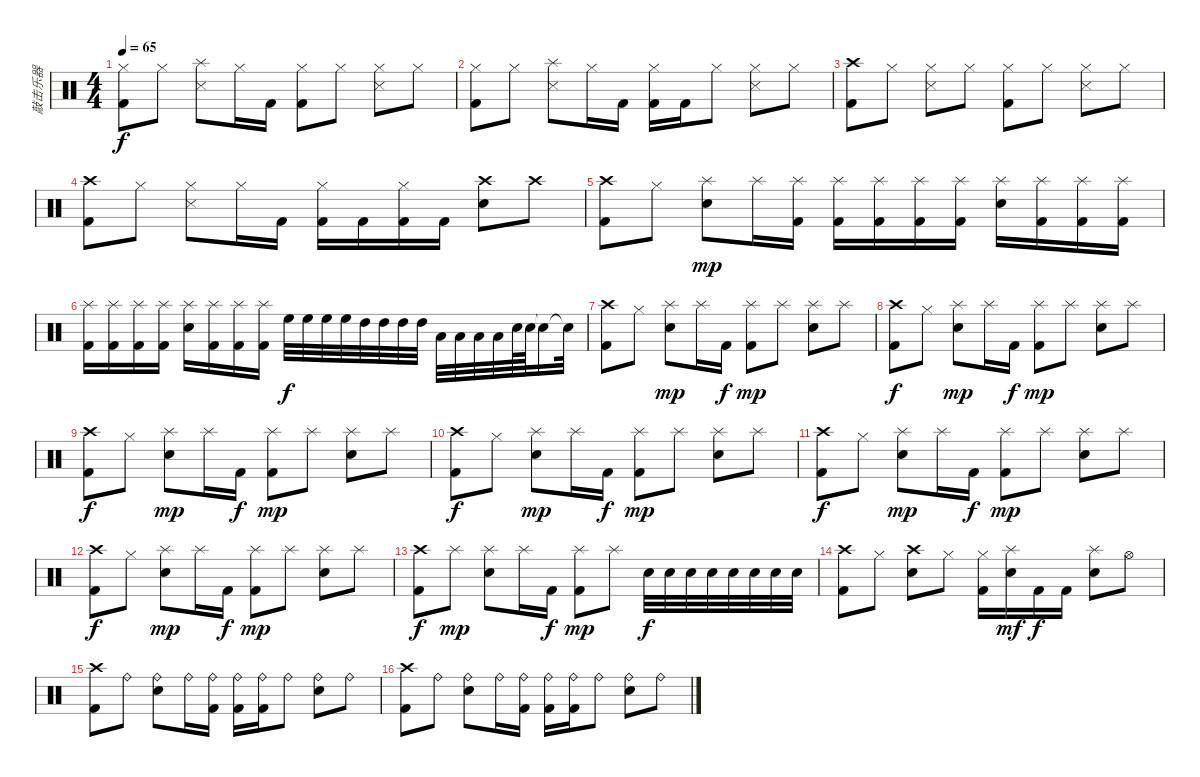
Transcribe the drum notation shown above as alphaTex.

\track ("敲击乐器" "敲击乐器") {instrument percussion}
\staff {score}
\articulation defaults
\ts (4 4)
\tempo 65
\clef neutral
\ks c
("Hi-Hat (closed)" "Kick (hit) 2").8{dy f} "Hi-Hat (closed)".8 ("Splash (hit)" "Snare (side stick) 3").8 "Hi-Hat (closed)".16 "Kick (hit) 2".16 ("Hi-Hat (closed)" "Kick (hit) 2").8 "Hi-Hat (closed)".8 ("Hi-Hat (closed)" "Snare (side stick) 3").8 "Hi-Hat (closed)".8 |
("Hi-Hat (closed)" "Kick (hit) 2").8 "Hi-Hat (closed)".8 ("Splash (hit)" "Snare (side stick) 3").8 "Hi-Hat (closed)".16 "Kick (hit) 2".16 ("Hi-Hat (closed)" "Kick (hit) 2").16 "Kick (hit) 2".16 "Hi-Hat (closed)".8 ("Hi-Hat (closed)" "Snare (side stick) 3").8 "Hi-Hat (closed)".8 |
("Crash high (hit)" "Kick (hit) 2").8 "Hi-Hat (closed)".8 ("Hi-Hat (closed)" "Snare (side stick) 3").8 "Hi-Hat (closed)".8 ("Hi-Hat (closed)" "Kick (hit) 2").8 "Hi-Hat (closed)".8 ("Hi-Hat (closed)" "Snare (side stick) 3").8 "Hi-Hat (closed)".8 |
("Crash high (hit)" "Kick (hit) 2").8 "Hi-Hat (closed)".8 ("Hi-Hat (closed)" "Snare (side stick) 3").8 "Hi-Hat (closed)".16 "Kick (hit) 2".16 ("Hi-Hat (closed)" "Kick (hit) 2").16 "Kick (hit) 2".16 ("Hi-Hat (closed)" "Kick (hit) 2").16 "Kick (hit) 2".16 ("Crash high (hit)" "Snare (hit) 2").8 "Crash high (hit)".8 |
("Crash high (hit)" "Kick (hit) 2").8 "Hi-Hat (closed)".8 ("Splash (hit)" "Snare (hit) 2").8{dy mp} "Splash (hit)".16 ("Splash (hit)" "Kick (hit) 2").16 ("Splash (hit)" "Kick (hit) 2").16 ("Splash (hit)" "Kick (hit) 2").16 ("Splash (hit)" "Kick (hit) 2").16 ("Splash (hit)" "Kick (hit) 2").16 ("Splash (hit)" "Snare (hit) 2").16 ("Splash (hit)" "Kick (hit) 2").16 ("Splash (hit)" "Kick (hit) 2").16 ("Splash (hit)" "Kick (hit) 2").16 |
("Splash (hit)" "Kick (hit) 2").16 ("Splash (hit)" "Kick (hit) 2").16 ("Splash (hit)" "Kick (hit) 2").16 ("Splash (hit)" "Kick (hit) 2").16 ("Splash (hit)" "Snare (hit) 2").16 ("Splash (hit)" "Kick (hit) 2").16 ("Splash (hit)" "Kick (hit) 2").16 ("Splash (hit)" "Kick (hit) 2").16 "High Floor Tom (hit)".32{dy f} "High Floor Tom (hit)".32 "High Floor Tom (hit)".32 "High Floor Tom (hit)".32 "High Tom (hit)".32 "High Tom (hit)".32 "High Tom (hit)".32 "High Tom (hit)".32 "Low Tom (hit)".32 "Low Tom (hit)".32 "Low Tom (hit)".32 "Low Tom (hit)".32 "Snare (hit) 2".64 "Snare (hit) 2".64 "Snare (hit)"{t}.16 "Snare (hit)"{t}.32 |
("Crash high (hit)" "Kick (hit) 2").8 "Hi-Hat (closed)".8 ("Splash (hit)" "Snare (hit) 2").8{dy mp} "Splash (hit)".16 "Kick (hit) 2".16{dy f} ("Splash (hit)" "Kick (hit) 2").8{dy mp} "Splash (hit)".8 ("Splash (hit)" "Snare (hit) 2").8 "Splash (hit)".8 |
("Crash high (hit)" "Kick (hit) 2").8{dy f} "Hi-Hat (closed)".8 ("Splash (hit)" "Snare (hit) 2").8{dy mp} "Splash (hit)".16 "Kick (hit) 2".16{dy f} ("Splash (hit)" "Kick (hit) 2").8{dy mp} "Splash (hit)".8 ("Splash (hit)" "Snare (hit) 2").8 "Splash (hit)".8 |
("Crash high (hit)" "Kick (hit) 2").8{dy f} "Hi-Hat (closed)".8 ("Splash (hit)" "Snare (hit) 2").8{dy mp} "Splash (hit)".16 "Kick (hit) 2".16{dy f} ("Splash (hit)" "Kick (hit) 2").8{dy mp} "Splash (hit)".8 ("Splash (hit)" "Snare (hit) 2").8 "Splash (hit)".8 |
("Crash high (hit)" "Kick (hit) 2").8{dy f} "Hi-Hat (closed)".8 ("Splash (hit)" "Snare (hit) 2").8{dy mp} "Splash (hit)".16 "Kick (hit) 2".16{dy f} ("Splash (hit)" "Kick (hit) 2").8{dy mp} "Splash (hit)".8 ("Splash (hit)" "Snare (hit) 2").8 "Splash (hit)".8 |
("Crash high (hit)" "Kick (hit) 2").8{dy f} "Hi-Hat (closed)".8 ("Splash (hit)" "Snare (hit) 2").8{dy mp} "Splash (hit)".16 "Kick (hit) 2".16{dy f} ("Splash (hit)" "Kick (hit) 2").8{dy mp} "Splash (hit)".8 ("Splash (hit)" "Snare (hit) 2").8 "Splash (hit)".8 |
("Crash high (hit)" "Kick (hit) 2").8{dy f} "Hi-Hat (closed)".8 ("Splash (hit)" "Snare (hit) 2").8{dy mp} "Splash (hit)".16 "Kick (hit) 2".16{dy f} ("Splash (hit)" "Kick (hit) 2").8{dy mp} "Splash (hit)".8 ("Splash (hit)" "Snare (hit) 2").8 "Splash (hit)".8 |
("Crash high (hit)" "Kick (hit) 2").8{dy f} "Splash (hit)".8{dy mp} ("Splash (hit)" "Snare (hit) 2").8 "Splash (hit)".16 "Kick (hit) 2".16{dy f} ("Splash (hit)" "Kick (hit) 2").8{dy mp} "Splash (hit)".8 "Snare (hit) 2".32{dy f} "Snare (hit) 2".32 "Snare (hit) 2".32 "Snare (hit) 2".32 "Snare (hit) 2".32 "Snare (hit) 2".32 "Snare (hit) 2".32 "Snare (hit) 2".32 |
("Crash high (hit)" "Kick (hit) 2").8 "Hi-Hat (closed)".8 ("Crash high (hit)" "Snare (hit) 2").8 "Hi-Hat (closed)".8 ("Hi-Hat (closed)" "Kick (hit) 2").16 ("Splash (hit)" "Snare (hit) 2").16{dy mf} "Kick (hit) 2".16{dy f} "Kick (hit) 2".16 ("Splash (hit)" "Snare (hit) 2").8 "Hi-Hat (open)".8 |
("Crash high (hit)" "Kick (hit) 2").8 "Ride (bell)".8 ("Ride (bell)" "Snare (hit) 2").8 "Ride (bell)".16 ("Ride (bell)" "Kick (hit) 2").16 ("Ride (bell)" "Kick (hit) 2").16 ("Ride (bell)" "Kick (hit) 2").16 "Ride (bell)".8 ("Ride (bell)" "Snare (hit) 2").8 "Ride (bell)".8 |
("Crash high (hit)" "Kick (hit) 2").8 "Ride (bell)".8 ("Ride (bell)" "Snare (hit) 2").8 "Ride (bell)".16 ("Ride (bell)" "Kick (hit) 2").16 ("Ride (bell)" "Kick (hit) 2").16 ("Ride (bell)" "Kick (hit) 2").16 "Ride (bell)".8 ("Ride (bell)" "Snare (hit) 2").8 "Ride (bell)".8
